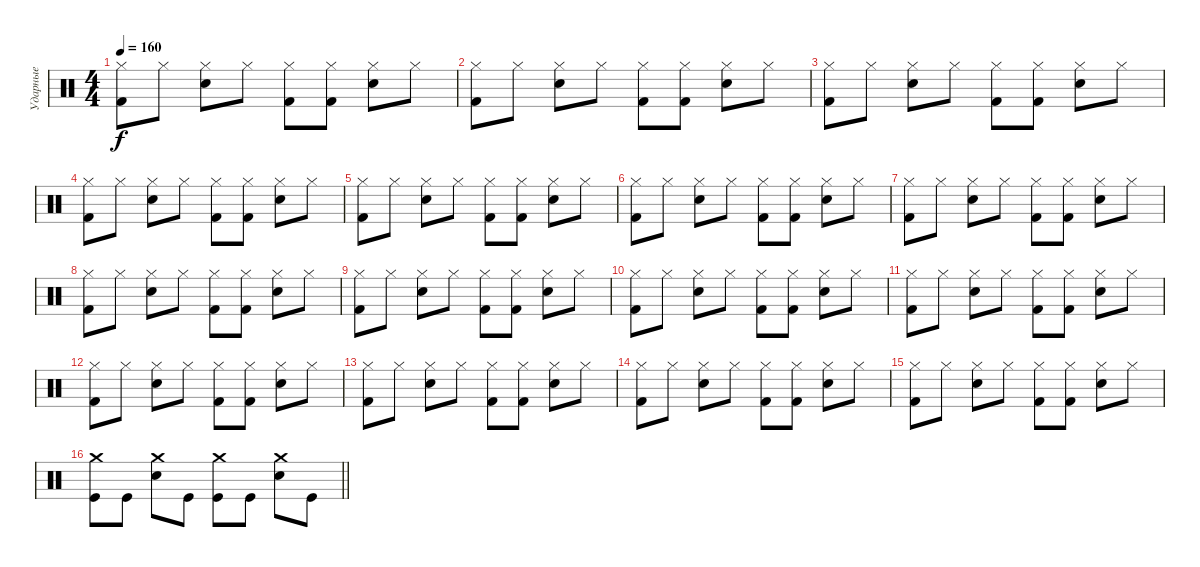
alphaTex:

\track ("Ударные" "Ударные") {instrument percussion}
\staff {score}
\articulation defaults
\ts (4 4)
\tempo 160
\clef neutral
\ks c
("Kick (hit) 2" "Hi-Hat (closed)").8{dy f} "Hi-Hat (closed)".8 ("Hi-Hat (closed)" "Electric Snare (hit)").8 "Hi-Hat (closed)".8 ("Kick (hit) 2" "Hi-Hat (closed)").8 ("Kick (hit) 2" "Hi-Hat (closed)").8 ("Hi-Hat (closed)" "Electric Snare (hit)").8 "Hi-Hat (closed)".8 |
("Kick (hit) 2" "Hi-Hat (closed)").8 "Hi-Hat (closed)".8 ("Hi-Hat (closed)" "Electric Snare (hit)").8 "Hi-Hat (closed)".8 ("Kick (hit) 2" "Hi-Hat (closed)").8 ("Kick (hit) 2" "Hi-Hat (closed)").8 ("Hi-Hat (closed)" "Electric Snare (hit)").8 "Hi-Hat (closed)".8 |
("Kick (hit) 2" "Hi-Hat (closed)").8 "Hi-Hat (closed)".8 ("Hi-Hat (closed)" "Electric Snare (hit)").8 "Hi-Hat (closed)".8 ("Kick (hit) 2" "Hi-Hat (closed)").8 ("Kick (hit) 2" "Hi-Hat (closed)").8 ("Hi-Hat (closed)" "Electric Snare (hit)").8 "Hi-Hat (closed)".8 |
("Kick (hit) 2" "Hi-Hat (closed)").8 "Hi-Hat (closed)".8 ("Hi-Hat (closed)" "Electric Snare (hit)").8 "Hi-Hat (closed)".8 ("Kick (hit) 2" "Hi-Hat (closed)").8 ("Kick (hit) 2" "Hi-Hat (closed)").8 ("Hi-Hat (closed)" "Electric Snare (hit)").8 "Hi-Hat (closed)".8 |
("Kick (hit) 2" "Hi-Hat (closed)").8 "Hi-Hat (closed)".8 ("Hi-Hat (closed)" "Electric Snare (hit)").8 "Hi-Hat (closed)".8 ("Kick (hit) 2" "Hi-Hat (closed)").8 ("Kick (hit) 2" "Hi-Hat (closed)").8 ("Hi-Hat (closed)" "Electric Snare (hit)").8 "Hi-Hat (closed)".8 |
("Kick (hit) 2" "Hi-Hat (closed)").8 "Hi-Hat (closed)".8 ("Hi-Hat (closed)" "Electric Snare (hit)").8 "Hi-Hat (closed)".8 ("Kick (hit) 2" "Hi-Hat (closed)").8 ("Kick (hit) 2" "Hi-Hat (closed)").8 ("Hi-Hat (closed)" "Electric Snare (hit)").8 "Hi-Hat (closed)".8 |
("Kick (hit) 2" "Hi-Hat (closed)").8 "Hi-Hat (closed)".8 ("Hi-Hat (closed)" "Electric Snare (hit)").8 "Hi-Hat (closed)".8 ("Kick (hit) 2" "Hi-Hat (closed)").8 ("Kick (hit) 2" "Hi-Hat (closed)").8 ("Hi-Hat (closed)" "Electric Snare (hit)").8 "Hi-Hat (closed)".8 |
("Kick (hit) 2" "Hi-Hat (closed)").8 "Hi-Hat (closed)".8 ("Hi-Hat (closed)" "Electric Snare (hit)").8 "Hi-Hat (closed)".8 ("Kick (hit) 2" "Hi-Hat (closed)").8 ("Kick (hit) 2" "Hi-Hat (closed)").8 ("Hi-Hat (closed)" "Electric Snare (hit)").8 "Hi-Hat (closed)".8 |
("Kick (hit) 2" "Hi-Hat (closed)").8 "Hi-Hat (closed)".8 ("Hi-Hat (closed)" "Electric Snare (hit)").8 "Hi-Hat (closed)".8 ("Kick (hit) 2" "Hi-Hat (closed)").8 ("Kick (hit) 2" "Hi-Hat (closed)").8 ("Hi-Hat (closed)" "Electric Snare (hit)").8 "Hi-Hat (closed)".8 |
("Kick (hit) 2" "Hi-Hat (closed)").8 "Hi-Hat (closed)".8 ("Hi-Hat (closed)" "Electric Snare (hit)").8 "Hi-Hat (closed)".8 ("Kick (hit) 2" "Hi-Hat (closed)").8 ("Kick (hit) 2" "Hi-Hat (closed)").8 ("Hi-Hat (closed)" "Electric Snare (hit)").8 "Hi-Hat (closed)".8 |
("Kick (hit) 2" "Hi-Hat (closed)").8 "Hi-Hat (closed)".8 ("Hi-Hat (closed)" "Electric Snare (hit)").8 "Hi-Hat (closed)".8 ("Kick (hit) 2" "Hi-Hat (closed)").8 ("Kick (hit) 2" "Hi-Hat (closed)").8 ("Hi-Hat (closed)" "Electric Snare (hit)").8 "Hi-Hat (closed)".8 |
("Kick (hit) 2" "Hi-Hat (closed)").8 "Hi-Hat (closed)".8 ("Hi-Hat (closed)" "Electric Snare (hit)").8 "Hi-Hat (closed)".8 ("Kick (hit) 2" "Hi-Hat (closed)").8 ("Kick (hit) 2" "Hi-Hat (closed)").8 ("Hi-Hat (closed)" "Electric Snare (hit)").8 "Hi-Hat (closed)".8 |
("Kick (hit) 2" "Hi-Hat (closed)").8 "Hi-Hat (closed)".8 ("Hi-Hat (closed)" "Electric Snare (hit)").8 "Hi-Hat (closed)".8 ("Kick (hit) 2" "Hi-Hat (closed)").8 ("Kick (hit) 2" "Hi-Hat (closed)").8 ("Hi-Hat (closed)" "Electric Snare (hit)").8 "Hi-Hat (closed)".8 |
("Kick (hit) 2" "Hi-Hat (closed)").8 "Hi-Hat (closed)".8 ("Hi-Hat (closed)" "Electric Snare (hit)").8 "Hi-Hat (closed)".8 ("Kick (hit) 2" "Hi-Hat (closed)").8 ("Kick (hit) 2" "Hi-Hat (closed)").8 ("Hi-Hat (closed)" "Electric Snare (hit)").8 "Hi-Hat (closed)".8 |
("Kick (hit) 2" "Hi-Hat (closed)").8 "Hi-Hat (closed)".8 ("Hi-Hat (closed)" "Electric Snare (hit)").8 "Hi-Hat (closed)".8 ("Kick (hit) 2" "Hi-Hat (closed)").8 ("Kick (hit) 2" "Hi-Hat (closed)").8 ("Hi-Hat (closed)" "Electric Snare (hit)").8 "Hi-Hat (closed)".8 |
\barLineRight lightlight
("Crash medium (hit)" "Kick (hit)").8 "Kick (hit)".8 ("Crash medium (hit)" "Electric Snare (hit)").8 "Kick (hit)".8 ("Crash medium (hit)" "Kick (hit)").8 "Kick (hit)".8 ("Crash medium (hit)" "Electric Snare (hit)").8 "Kick (hit)".8
